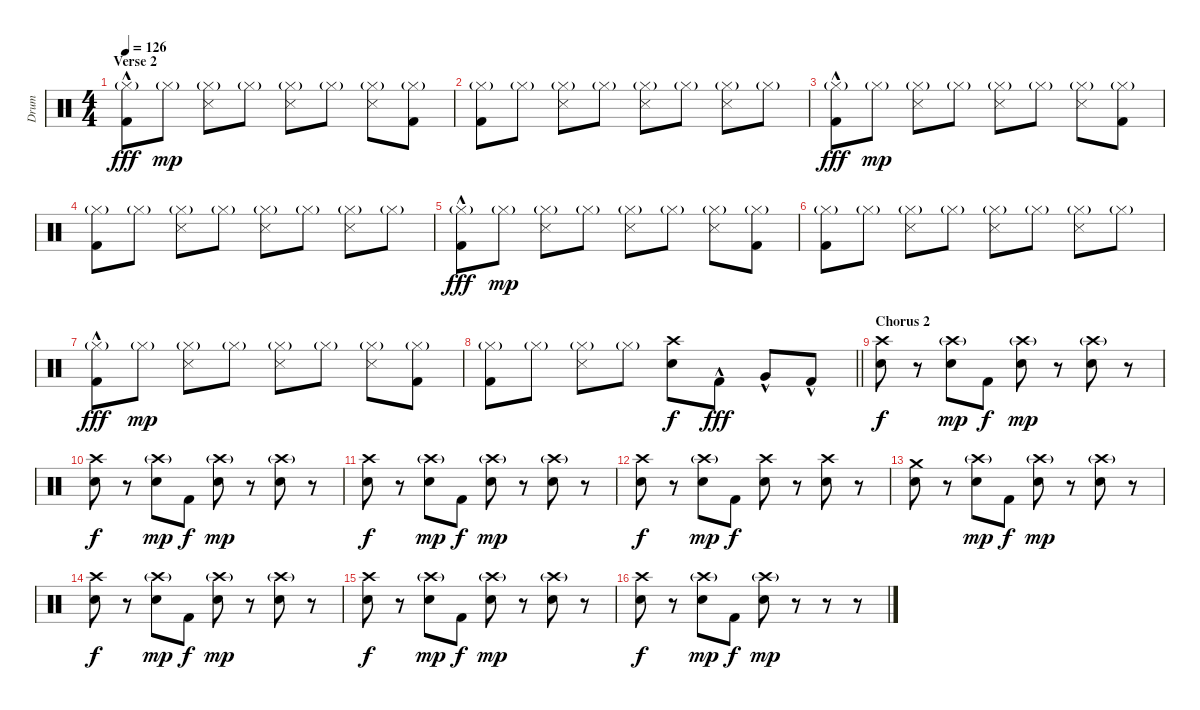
\track ("Drum" "Drum") {instrument percussion}
\staff {score}
\articulation defaults
\ts (4 4)
\section ("" "Verse 2")
\tempo 126
\clef neutral
\ks c
("Hi-Hat (closed)"{g} "Kick (hit) 2"{hac}).8{dy fff} "Hi-Hat (closed)"{g}.8{dy mp} ("Hi-Hat (closed)"{g} "Snare (side stick) 3").8 "Hi-Hat (closed)"{g}.8 ("Hi-Hat (closed)"{g} "Snare (side stick) 3").8 "Hi-Hat (closed)"{g}.8 ("Hi-Hat (closed)"{g} "Snare (side stick) 3").8 ("Hi-Hat (closed)"{g} "Kick (hit) 2").8 |
("Hi-Hat (closed)"{g} "Kick (hit) 2").8 "Hi-Hat (closed)"{g}.8 ("Hi-Hat (closed)"{g} "Snare (side stick) 3").8 "Hi-Hat (closed)"{g}.8 ("Hi-Hat (closed)"{g} "Snare (side stick) 3").8 "Hi-Hat (closed)"{g}.8 ("Hi-Hat (closed)"{g} "Snare (side stick) 3").8 "Hi-Hat (closed)"{g}.8 |
("Hi-Hat (closed)"{g} "Kick (hit) 2"{hac}).8{dy fff} "Hi-Hat (closed)"{g}.8{dy mp} ("Hi-Hat (closed)"{g} "Snare (side stick) 3").8 "Hi-Hat (closed)"{g}.8 ("Hi-Hat (closed)"{g} "Snare (side stick) 3").8 "Hi-Hat (closed)"{g}.8 ("Hi-Hat (closed)"{g} "Snare (side stick) 3").8 ("Hi-Hat (closed)"{g} "Kick (hit) 2").8 |
("Hi-Hat (closed)"{g} "Kick (hit) 2").8 "Hi-Hat (closed)"{g}.8 ("Hi-Hat (closed)"{g} "Snare (side stick) 3").8 "Hi-Hat (closed)"{g}.8 ("Hi-Hat (closed)"{g} "Snare (side stick) 3").8 "Hi-Hat (closed)"{g}.8 ("Hi-Hat (closed)"{g} "Snare (side stick) 3").8 "Hi-Hat (closed)"{g}.8 |
("Hi-Hat (closed)"{g} "Kick (hit) 2"{hac}).8{dy fff} "Hi-Hat (closed)"{g}.8{dy mp} ("Hi-Hat (closed)"{g} "Snare (side stick) 3").8 "Hi-Hat (closed)"{g}.8 ("Hi-Hat (closed)"{g} "Snare (side stick) 3").8 "Hi-Hat (closed)"{g}.8 ("Hi-Hat (closed)"{g} "Snare (side stick) 3").8 ("Hi-Hat (closed)"{g} "Kick (hit) 2").8 |
("Hi-Hat (closed)"{g} "Kick (hit) 2").8 "Hi-Hat (closed)"{g}.8 ("Hi-Hat (closed)"{g} "Snare (side stick) 3").8 "Hi-Hat (closed)"{g}.8 ("Hi-Hat (closed)"{g} "Snare (side stick) 3").8 "Hi-Hat (closed)"{g}.8 ("Hi-Hat (closed)"{g} "Snare (side stick) 3").8 "Hi-Hat (closed)"{g}.8 |
("Hi-Hat (closed)"{g} "Kick (hit) 2"{hac}).8{dy fff} "Hi-Hat (closed)"{g}.8{dy mp} ("Hi-Hat (closed)"{g} "Snare (side stick) 3").8 "Hi-Hat (closed)"{g}.8 ("Hi-Hat (closed)"{g} "Snare (side stick) 3").8 "Hi-Hat (closed)"{g}.8 ("Hi-Hat (closed)"{g} "Snare (side stick) 3").8 ("Hi-Hat (closed)"{g} "Kick (hit) 2").8 |
\barLineRight lightlight
("Hi-Hat (closed)"{g} "Kick (hit) 2").8 "Hi-Hat (closed)"{g}.8 ("Hi-Hat (closed)"{g} "Snare (side stick) 3").8 "Hi-Hat (closed)"{g}.8 ("Crash high (hit)" "Electric Snare (hit)").8{dy f} "Kick (hit) 2"{hac}.8{dy fff} "Very Low Tom (hit)"{hac}.8 "Kick (hit) 2"{hac}.8 |
\section ("" "Chorus 2")
("Crash high (hit)" "Electric Snare (hit)").8{dy f} r.8 ("Crash high (hit)"{g} "Electric Snare (hit)").8{dy mp} "Kick (hit) 2".8{dy f} ("Crash high (hit)"{g} "Electric Snare (hit)").8{dy mp} r.8 ("Crash high (hit)"{g} "Electric Snare (hit)").8 r.8 |
("Crash high (hit)" "Electric Snare (hit)").8{dy f} r.8 ("Crash high (hit)"{g} "Electric Snare (hit)").8{dy mp} "Kick (hit) 2".8{dy f} ("Crash high (hit)"{g} "Electric Snare (hit)").8{dy mp} r.8 ("Crash high (hit)"{g} "Electric Snare (hit)").8 r.8 |
("Crash high (hit)" "Electric Snare (hit)").8{dy f} r.8 ("Crash high (hit)"{g} "Electric Snare (hit)").8{dy mp} "Kick (hit) 2".8{dy f} ("Crash high (hit)"{g} "Electric Snare (hit)").8{dy mp} r.8 ("Crash high (hit)"{g} "Electric Snare (hit)").8 r.8 |
("Crash high (hit)" "Electric Snare (hit)").8{dy f} r.8 ("Crash high (hit)"{g} "Electric Snare (hit)").8{dy mp} "Kick (hit) 2".8{dy f} ("Crash high (hit)" "Electric Snare (hit)").8 r.8 ("Crash high (hit)" "Electric Snare (hit)").8 r.8 |
("Crash medium (hit)" "Electric Snare (hit)").8 r.8 ("Crash high (hit)"{g} "Electric Snare (hit)").8{dy mp} "Kick (hit) 2".8{dy f} ("Crash high (hit)"{g} "Electric Snare (hit)").8{dy mp} r.8 ("Crash high (hit)"{g} "Electric Snare (hit)").8 r.8 |
("Crash high (hit)" "Electric Snare (hit)").8{dy f} r.8 ("Crash high (hit)"{g} "Electric Snare (hit)").8{dy mp} "Kick (hit) 2".8{dy f} ("Crash high (hit)"{g} "Electric Snare (hit)").8{dy mp} r.8 ("Crash high (hit)"{g} "Electric Snare (hit)").8 r.8 |
("Crash high (hit)" "Electric Snare (hit)").8{dy f} r.8 ("Crash high (hit)"{g} "Electric Snare (hit)").8{dy mp} "Kick (hit) 2".8{dy f} ("Crash high (hit)"{g} "Electric Snare (hit)").8{dy mp} r.8 ("Crash high (hit)"{g} "Electric Snare (hit)").8 r.8 |
("Crash high (hit)" "Electric Snare (hit)").8{dy f} r.8 ("Crash high (hit)"{g} "Electric Snare (hit)").8{dy mp} "Kick (hit) 2".8{dy f} ("Crash high (hit)"{g} "Electric Snare (hit)").8{dy mp} r.8 r.8 r.8
